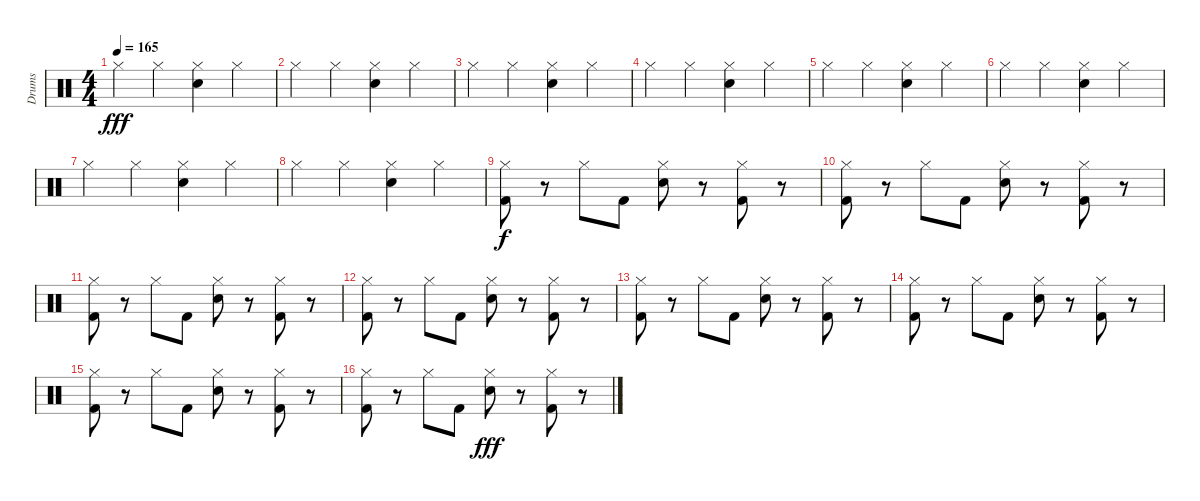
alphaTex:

\track ("Drums" "Drums") {instrument percussion}
\staff {score}
\articulation defaults
\ts (4 4)
\tempo 165
\clef neutral
\ks c "Hi-Hat (closed)".4{dy fff} "Hi-Hat (closed)".4
("Hi-Hat (closed)" "Electric Snare (hit)").4 "Hi-Hat (closed)".4 |
"Hi-Hat (closed)".4 "Hi-Hat (closed)".4 ("Hi-Hat (closed)" "Electric Snare (hit)").4 "Hi-Hat (closed)".4 |
"Hi-Hat (closed)".4 "Hi-Hat (closed)".4 ("Hi-Hat (closed)" "Electric Snare (hit)").4 "Hi-Hat (closed)".4 |
"Hi-Hat (closed)".4 "Hi-Hat (closed)".4 ("Hi-Hat (closed)" "Electric Snare (hit)").4 "Hi-Hat (closed)".4 |
"Hi-Hat (closed)".4 "Hi-Hat (closed)".4 ("Hi-Hat (closed)" "Electric Snare (hit)").4 "Hi-Hat (closed)".4 |
"Hi-Hat (closed)".4 "Hi-Hat (closed)".4 ("Hi-Hat (closed)" "Electric Snare (hit)").4 "Hi-Hat (closed)".4 |
"Hi-Hat (closed)".4 "Hi-Hat (closed)".4 ("Hi-Hat (closed)" "Electric Snare (hit)").4 "Hi-Hat (closed)".4 |
"Hi-Hat (closed)".4 "Hi-Hat (closed)".4 ("Hi-Hat (closed)" "Electric Snare (hit)").4 "Hi-Hat (closed)".4 |
("Hi-Hat (closed)" "Kick (hit) 2").8{dy f} r.8 "Hi-Hat (closed)".8 "Kick (hit) 2".8 ("Hi-Hat (closed)" "Electric Snare (hit)").8 r.8 ("Hi-Hat (closed)" "Kick (hit) 2").8 r.8 |
("Hi-Hat (closed)" "Kick (hit) 2").8 r.8 "Hi-Hat (closed)".8 "Kick (hit) 2".8 ("Hi-Hat (closed)" "Electric Snare (hit)").8 r.8 ("Hi-Hat (closed)" "Kick (hit) 2").8 r.8 |
("Hi-Hat (closed)" "Kick (hit) 2").8 r.8 "Hi-Hat (closed)".8 "Kick (hit) 2".8 ("Hi-Hat (closed)" "Electric Snare (hit)").8 r.8 ("Hi-Hat (closed)" "Kick (hit) 2").8 r.8 |
("Hi-Hat (closed)" "Kick (hit) 2").8 r.8 "Hi-Hat (closed)".8 "Kick (hit) 2".8 ("Hi-Hat (closed)" "Electric Snare (hit)").8 r.8 ("Hi-Hat (closed)" "Kick (hit) 2").8 r.8 |
("Hi-Hat (closed)" "Kick (hit) 2").8 r.8 "Hi-Hat (closed)".8 "Kick (hit) 2".8 ("Hi-Hat (closed)" "Electric Snare (hit)").8 r.8 ("Hi-Hat (closed)" "Kick (hit) 2").8 r.8 |
("Hi-Hat (closed)" "Kick (hit) 2").8 r.8 "Hi-Hat (closed)".8 "Kick (hit) 2".8 ("Hi-Hat (closed)" "Electric Snare (hit)").8 r.8 ("Hi-Hat (closed)" "Kick (hit) 2").8 r.8 |
("Hi-Hat (closed)" "Kick (hit) 2").8 r.8 "Hi-Hat (closed)".8 "Kick (hit) 2".8 ("Hi-Hat (closed)" "Electric Snare (hit)").8 r.8 ("Hi-Hat (closed)" "Kick (hit) 2").8 r.8 |
("Hi-Hat (closed)" "Kick (hit) 2").8 r.8 "Hi-Hat (closed)".8 "Kick (hit) 2".8 ("Hi-Hat (closed)" "Electric Snare (hit)").8{dy fff} r.8 ("Hi-Hat (closed)" "Kick (hit) 2").8 r.8
